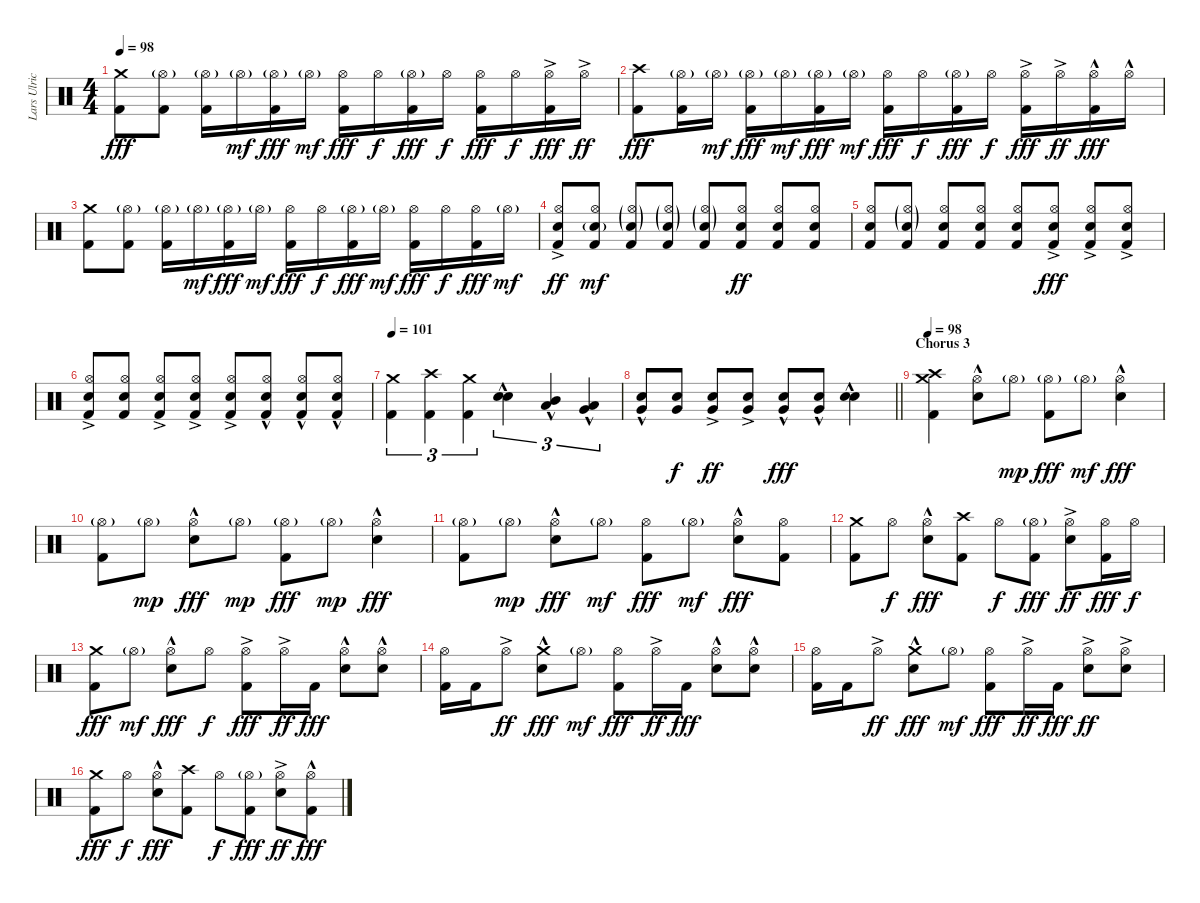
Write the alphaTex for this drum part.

\track ("Lars Ulrich (Drums)" "Lars Ulric") {instrument percussion}
\staff {score}
\articulation defaults
\ts (4 4)
\tempo 98
\clef neutral
\ks c
("Crash medium (hit)" "Kick (hit) 2").8{dy fff} ("Hi-Hat (open)"{g} "Kick (hit) 2").8 ("Hi-Hat (open)"{g} "Kick (hit) 2").16 "Hi-Hat (open)"{g}.16{dy mf} ("Hi-Hat (open)"{g} "Kick (hit) 2").16{dy fff} "Hi-Hat (open)"{g}.16{dy mf} ("Hi-Hat (open)" "Kick (hit) 2").16{dy fff} "Hi-Hat (open)".16{dy f} ("Hi-Hat (open)"{g} "Kick (hit) 2").16{dy fff} "Hi-Hat (open)".16{dy f} ("Hi-Hat (open)" "Kick (hit) 2").16{dy fff} "Hi-Hat (open)".16{dy f} ("Hi-Hat (open)"{ac} "Kick (hit) 2").16{dy fff} "Hi-Hat (open)"{ac}.16{dy ff} |
("Crash high (hit)" "Kick (hit) 2").8{dy fff} ("Hi-Hat (open)"{g} "Kick (hit) 2").16 "Hi-Hat (open)"{g}.16{dy mf} ("Hi-Hat (open)"{g} "Kick (hit) 2").16{dy fff} "Hi-Hat (open)"{g}.16{dy mf} ("Hi-Hat (open)"{g} "Kick (hit) 2").16{dy fff} "Hi-Hat (open)"{g}.16{dy mf} ("Hi-Hat (open)" "Kick (hit) 2").16{dy fff} "Hi-Hat (open)".16{dy f} ("Hi-Hat (open)"{g} "Kick (hit) 2").16{dy fff} "Hi-Hat (open)".16{dy f} ("Hi-Hat (open)"{ac} "Kick (hit) 2").16{dy fff} "Hi-Hat (open)"{ac}.16{dy ff} ("Hi-Hat (open)"{hac} "Kick (hit) 2").16{dy fff} "Hi-Hat (open)"{hac}.16 |
("Crash medium (hit)" "Kick (hit) 2").8 ("Hi-Hat (open)"{g} "Kick (hit) 2").8 ("Hi-Hat (open)"{g} "Kick (hit) 2").16 "Hi-Hat (open)"{g}.16{dy mf} ("Hi-Hat (open)"{g} "Kick (hit) 2").16{dy fff} "Hi-Hat (open)"{g}.16{dy mf} ("Hi-Hat (open)" "Kick (hit) 2").16{dy fff} "Hi-Hat (open)".16{dy f} ("Hi-Hat (open)"{g} "Kick (hit) 2").16{dy fff} "Hi-Hat (open)"{g}.16{dy mf} ("Hi-Hat (open)" "Kick (hit) 2").16{dy fff} "Hi-Hat (open)".16{dy f} ("Hi-Hat (open)" "Kick (hit) 2").16{dy fff} "Hi-Hat (open)"{g}.16{dy mf} |
("Hi-Hat (open)"{ac} "Electric Snare (hit)"{ac} "Kick (hit) 2").8{dy ff} ("Hi-Hat (open)" "Electric Snare (hit)"{g} "Kick (hit) 2").8{dy mf} ("Hi-Hat (open)"{g} "Electric Snare (hit)"{g} "Kick (hit) 2").8 ("Hi-Hat (open)"{g} "Electric Snare (hit)"{g} "Kick (hit) 2").8 ("Hi-Hat (open)"{g} "Electric Snare (hit)"{g} "Kick (hit) 2").8 ("Hi-Hat (open)" "Electric Snare (hit)" "Kick (hit) 2").8{dy ff} ("Hi-Hat (open)" "Electric Snare (hit)" "Kick (hit) 2").8 ("Hi-Hat (open)" "Electric Snare (hit)" "Kick (hit) 2").8 |
("Hi-Hat (open)" "Electric Snare (hit)" "Kick (hit) 2").8 ("Hi-Hat (open)"{g} "Electric Snare (hit)"{g} "Kick (hit) 2").8 ("Hi-Hat (open)" "Electric Snare (hit)" "Kick (hit) 2").8 ("Hi-Hat (open)" "Electric Snare (hit)" "Kick (hit) 2").8 ("Hi-Hat (open)" "Electric Snare (hit)" "Kick (hit) 2").8 ("Hi-Hat (open)"{ac} "Electric Snare (hit)"{ac} "Kick (hit) 2").8{dy fff} ("Hi-Hat (open)"{ac} "Electric Snare (hit)"{ac} "Kick (hit) 2").8 ("Hi-Hat (open)"{ac} "Electric Snare (hit)"{ac} "Kick (hit) 2").8 |
("Hi-Hat (open)"{ac} "Electric Snare (hit)"{ac} "Kick (hit) 2").8 ("Hi-Hat (open)" "Electric Snare (hit)" "Kick (hit) 2").8 ("Hi-Hat (open)"{ac} "Electric Snare (hit)"{ac} "Kick (hit) 2").8 ("Hi-Hat (open)"{ac} "Electric Snare (hit)"{ac} "Kick (hit) 2").8 ("Hi-Hat (open)"{ac} "Electric Snare (hit)"{ac} "Kick (hit) 2").8 ("Hi-Hat (open)"{hac} "Electric Snare (hit)"{hac} "Kick (hit) 2").8 ("Hi-Hat (open)"{hac} "Electric Snare (hit)"{hac} "Kick (hit) 2").8 ("Hi-Hat (open)"{hac} "Electric Snare (hit)"{hac} "Kick (hit) 2").8 |
\tempo 101
("Crash medium (hit)" "Kick (hit) 2").4{tu (3 2)} ("Crash high (hit)" "Kick (hit) 2").4{tu (3 2)} ("Crash medium (hit)" "Kick (hit) 2").4{tu (3 2)} ("Electric Snare (hit)"{hac} "Electric Snare (hit)"{hac}).4{tu (3 2) bd 60} ("Mid Tom (hit)"{hac} "Low Tom (hit)"{hac}).4{tu (3 2) bu 60} ("Low Tom (hit)"{hac} "Very Low Tom (hit)"{hac}).4{tu (3 2) bu 60} |
\barLineRight lightlight
("Electric Snare (hit)"{hac} "Very Low Tom (hit)"{hac}).8 ("Electric Snare (hit)" "Very Low Tom (hit)").8{dy f} ("Electric Snare (hit)"{ac} "Very Low Tom (hit)"{ac}).8{dy ff} ("Electric Snare (hit)"{ac} "Very Low Tom (hit)"{ac}).8 ("Electric Snare (hit)"{hac} "Very Low Tom (hit)"{hac}).8{dy fff} ("Electric Snare (hit)"{hac} "Very Low Tom (hit)"{hac}).8 ("Electric Snare (hit)"{hac} "Electric Snare (hit)"{hac}).4{bd 120} |
\section ("" "Chorus 3")
\tempo 98
("Crash medium (hit)" "Crash high (hit)" "Kick (hit) 2").4 ("Hi-Hat (open)"{hac} "Electric Snare (hit)"{hac}).8 "Hi-Hat (open)"{g}.8{dy mp} ("Hi-Hat (open)"{g} "Kick (hit) 2").8{dy fff} "Hi-Hat (open)"{g}.8{dy mf} ("Hi-Hat (open)"{hac} "Electric Snare (hit)"{hac}).4{dy fff} |
("Hi-Hat (open)"{g} "Kick (hit) 2").8 "Hi-Hat (open)"{g}.8{dy mp} ("Hi-Hat (open)"{hac} "Electric Snare (hit)"{hac}).8{dy fff} "Hi-Hat (open)"{g}.8{dy mp} ("Hi-Hat (open)"{g} "Kick (hit) 2").8{dy fff} "Hi-Hat (open)"{g}.8{dy mp} ("Hi-Hat (open)"{hac} "Electric Snare (hit)"{hac}).4{dy fff} |
("Hi-Hat (open)"{g} "Kick (hit) 2").8 "Hi-Hat (open)"{g}.8{dy mp} ("Hi-Hat (open)"{hac} "Electric Snare (hit)"{hac}).8{dy fff} "Hi-Hat (open)"{g}.8{dy mf} ("Hi-Hat (open)" "Kick (hit) 2").8{dy fff} "Hi-Hat (open)"{g}.8{dy mf} ("Hi-Hat (open)"{hac} "Electric Snare (hit)"{hac}).8{dy fff} ("Hi-Hat (open)" "Kick (hit) 2").8 |
("Crash medium (hit)" "Kick (hit) 2").8 "Hi-Hat (open)".8{dy f} ("Hi-Hat (open)"{hac} "Electric Snare (hit)"{hac}).8{dy fff} ("Crash high (hit)" "Kick (hit) 2").8 "Hi-Hat (open)".8{dy f} ("Hi-Hat (open)"{g} "Kick (hit) 2").8{dy fff} ("Hi-Hat (open)"{ac} "Electric Snare (hit)"{ac}).8{dy ff} ("Hi-Hat (open)" "Kick (hit) 2").16{dy fff} "Hi-Hat (open)".16{dy f} |
("Crash medium (hit)" "Kick (hit) 2").8{dy fff} "Hi-Hat (open)"{g}.8{dy mf} ("Hi-Hat (open)"{hac} "Electric Snare (hit)"{hac}).8{dy fff} "Hi-Hat (open)".8{dy f} ("Hi-Hat (open)"{ac} "Kick (hit) 2").8{dy fff} "Hi-Hat (open)"{ac}.16{dy ff} "Kick (hit) 2".16{dy fff} ("Hi-Hat (open)"{hac} "Electric Snare (hit)"{hac}).8 ("Hi-Hat (open)"{hac} "Electric Snare (hit)"{hac}).8 |
("Hi-Hat (open)" "Kick (hit) 2").16 "Kick (hit) 2".16 "Hi-Hat (open)"{ac}.8{dy ff} ("Crash medium (hit)" "Electric Snare (hit)"{hac}).8{dy fff} "Hi-Hat (open)"{g}.8{dy mf} ("Hi-Hat (open)" "Kick (hit) 2").8{dy fff} "Hi-Hat (open)"{ac}.16{dy ff} "Kick (hit) 2".16{dy fff} ("Hi-Hat (open)"{hac} "Electric Snare (hit)"{hac}).8 ("Hi-Hat (open)"{hac} "Electric Snare (hit)"{hac}).8 |
("Hi-Hat (open)" "Kick (hit) 2").16 "Kick (hit) 2".16 "Hi-Hat (open)"{ac}.8{dy ff} ("Crash medium (hit)" "Electric Snare (hit)"{hac}).8{dy fff} "Hi-Hat (open)"{g}.8{dy mf} ("Hi-Hat (open)" "Kick (hit) 2").8{dy fff} "Hi-Hat (open)"{ac}.16{dy ff} "Kick (hit) 2".16{dy fff} ("Hi-Hat (open)"{ac} "Electric Snare (hit)"{ac}).8{dy ff} ("Hi-Hat (open)"{ac} "Electric Snare (hit)"{ac}).8 |
("Crash medium (hit)" "Kick (hit) 2").8{dy fff} "Hi-Hat (open)".8{dy f} ("Hi-Hat (open)"{hac} "Electric Snare (hit)"{hac}).8{dy fff} ("Crash high (hit)" "Kick (hit) 2").8 "Hi-Hat (open)".8{dy f} ("Hi-Hat (open)"{g} "Kick (hit) 2").8{dy fff} ("Hi-Hat (open)"{ac} "Electric Snare (hit)"{ac}).8{dy ff} ("Hi-Hat (open)"{hac} "Kick (hit) 2").8{dy fff}
